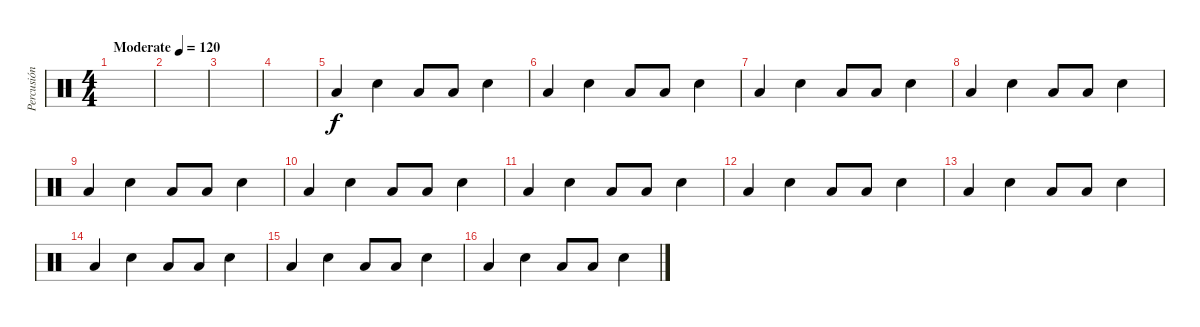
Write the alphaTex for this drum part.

\track ("Percusión" "Percusión") {instrument percussion}
\staff {score}
\articulation defaults
\ts (4 4)
\tempo (120 "Moderate")
\clef neutral
\ks c
|
|
|
|
"Low Tom (hit)".4 "Electric Snare (hit)".4 "Low Tom (hit)".8 "Low Tom (hit)".8 "Electric Snare (hit)".4 |
"Low Tom (hit)".4 "Electric Snare (hit)".4 "Low Tom (hit)".8 "Low Tom (hit)".8 "Electric Snare (hit)".4 |
"Low Tom (hit)".4 "Electric Snare (hit)".4 "Low Tom (hit)".8 "Low Tom (hit)".8 "Electric Snare (hit)".4 |
"Low Tom (hit)".4 "Electric Snare (hit)".4 "Low Tom (hit)".8 "Low Tom (hit)".8 "Electric Snare (hit)".4 |
"Low Tom (hit)".4 "Electric Snare (hit)".4 "Low Tom (hit)".8 "Low Tom (hit)".8 "Electric Snare (hit)".4 |
"Low Tom (hit)".4 "Electric Snare (hit)".4 "Low Tom (hit)".8 "Low Tom (hit)".8 "Electric Snare (hit)".4 |
"Low Tom (hit)".4 "Electric Snare (hit)".4 "Low Tom (hit)".8 "Low Tom (hit)".8 "Electric Snare (hit)".4 |
"Low Tom (hit)".4 "Electric Snare (hit)".4 "Low Tom (hit)".8 "Low Tom (hit)".8 "Electric Snare (hit)".4 |
"Low Tom (hit)".4 "Electric Snare (hit)".4 "Low Tom (hit)".8 "Low Tom (hit)".8 "Electric Snare (hit)".4 |
"Low Tom (hit)".4 "Electric Snare (hit)".4 "Low Tom (hit)".8 "Low Tom (hit)".8 "Electric Snare (hit)".4 |
"Low Tom (hit)".4 "Electric Snare (hit)".4 "Low Tom (hit)".8 "Low Tom (hit)".8 "Electric Snare (hit)".4 |
"Low Tom (hit)".4 "Electric Snare (hit)".4 "Low Tom (hit)".8 "Low Tom (hit)".8 "Electric Snare (hit)".4
